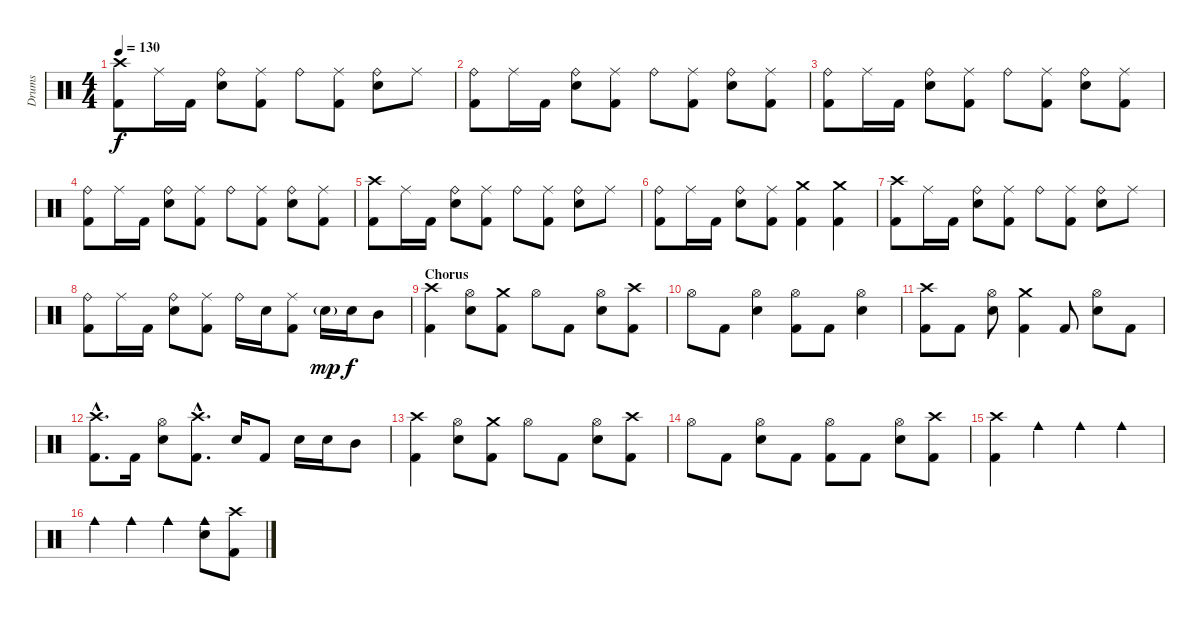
\track ("Drums" "Drums") {instrument percussion}
\staff {score}
\articulation defaults
\ts (4 4)
\tempo 130
\clef neutral
\ks c
("Crash high (hit)" "Kick (hit) 2").8{dy f} "Ride (middle)".16 "Kick (hit) 2".16 ("Ride (bell)" "Electric Snare (hit)").8 ("Ride (middle)" "Kick (hit) 2").8 "Ride (bell)".8 ("Ride (middle)" "Kick (hit) 2").8 ("Ride (bell)" "Electric Snare (hit)").8 "Ride (middle)".8 |
("Ride (bell)" "Kick (hit) 2").8 "Ride (middle)".16 "Kick (hit) 2".16 ("Ride (bell)" "Electric Snare (hit)").8 ("Ride (middle)" "Kick (hit) 2").8 "Ride (bell)".8 ("Ride (middle)" "Kick (hit) 2").8 ("Ride (bell)" "Electric Snare (hit)").8 ("Ride (middle)" "Kick (hit) 2").8 |
("Ride (bell)" "Kick (hit) 2").8 "Ride (middle)".16 "Kick (hit) 2".16 ("Ride (bell)" "Electric Snare (hit)").8 ("Ride (middle)" "Kick (hit) 2").8 "Ride (bell)".8 ("Ride (middle)" "Kick (hit) 2").8 ("Ride (bell)" "Electric Snare (hit)").8 ("Ride (middle)" "Kick (hit) 2").8 |
("Ride (bell)" "Kick (hit) 2").8 "Ride (middle)".16 "Kick (hit) 2".16 ("Ride (bell)" "Electric Snare (hit)").8 ("Ride (middle)" "Kick (hit) 2").8 "Ride (bell)".8 ("Ride (middle)" "Kick (hit) 2").8 ("Ride (bell)" "Electric Snare (hit)").8 ("Ride (middle)" "Kick (hit) 2").8 |
("Crash high (hit)" "Kick (hit) 2").8 "Ride (middle)".16 "Kick (hit) 2".16 ("Ride (bell)" "Electric Snare (hit)").8 ("Ride (middle)" "Kick (hit) 2").8 "Ride (bell)".8 ("Ride (middle)" "Kick (hit) 2").8 ("Ride (bell)" "Electric Snare (hit)").8 "Ride (middle)".8 |
("Ride (bell)" "Kick (hit) 2").8 "Ride (middle)".16 "Kick (hit) 2".16 ("Ride (bell)" "Electric Snare (hit)").8 ("Ride (middle)" "Kick (hit) 2").8 ("Crash medium (hit)" "Kick (hit) 2").4 ("Crash medium (hit)" "Kick (hit) 2").4 |
("Crash high (hit)" "Kick (hit) 2").8 "Ride (middle)".16 "Kick (hit) 2".16 ("Ride (bell)" "Electric Snare (hit)").8 ("Ride (middle)" "Kick (hit) 2").8 "Ride (bell)".8 ("Ride (middle)" "Kick (hit) 2").8 ("Ride (bell)" "Electric Snare (hit)").8 "Ride (middle)".8 |
("Ride (bell)" "Kick (hit) 2").8 "Ride (middle)".16 "Kick (hit) 2".16 ("Ride (bell)" "Electric Snare (hit)").8 ("Ride (middle)" "Kick (hit) 2").8 "Ride (bell)".16 "Electric Snare (hit)".16 ("Ride (middle)" "Kick (hit) 2").8 "Electric Snare (hit)"{g}.16{dy mp} "Electric Snare (hit)".16{dy f} "Mid Tom (hit)".8 |
\section ("" "Chorus")
("Crash high (hit)" "Kick (hit) 2").4 ("Hi-Hat (open)" "Electric Snare (hit)").8 ("Crash medium (hit)" "Kick (hit) 2").8 "Hi-Hat (open)".8 "Kick (hit) 2".8 ("Hi-Hat (open)" "Electric Snare (hit)").8 ("Crash high (hit)" "Kick (hit) 2").8 |
"Hi-Hat (open)".8 "Kick (hit) 2".8 ("Hi-Hat (open)" "Electric Snare (hit)").4 ("Hi-Hat (open)" "Kick (hit) 2").8 "Kick (hit) 2".8 ("Hi-Hat (open)" "Electric Snare (hit)").4 |
("Crash high (hit)" "Kick (hit) 2").8 "Kick (hit) 2".8 ("Hi-Hat (open)" "Electric Snare (hit)").8 ("Crash medium (hit)" "Kick (hit) 2").4 "Kick (hit) 2".8 ("Hi-Hat (open)" "Electric Snare (hit)").8 "Kick (hit) 2".8 |
("Crash high (hit)"{hac} "Kick (hit) 2"{hac}).8{d} "Kick (hit) 2".16 ("Hi-Hat (open)" "Electric Snare (hit)").8 ("Crash high (hit)"{hac} "Kick (hit) 2"{hac}).8{d} "Electric Snare (hit)".16 "Kick (hit) 2".8 "Electric Snare (hit)".16 "Electric Snare (hit)".16 "Mid Tom (hit)".8 |
("Crash high (hit)" "Kick (hit) 2").4 ("Hi-Hat (open)" "Electric Snare (hit)").8 ("Crash medium (hit)" "Kick (hit) 2").8 "Hi-Hat (open)".8 "Kick (hit) 2".8 ("Hi-Hat (open)" "Electric Snare (hit)").8 ("Crash high (hit)" "Kick (hit) 2").8 |
"Hi-Hat (open)".8 "Kick (hit) 2".8 ("Hi-Hat (open)" "Electric Snare (hit)").8 "Kick (hit) 2".8 ("Hi-Hat (open)" "Kick (hit) 2").8 "Kick (hit) 2".8 ("Hi-Hat (open)" "Electric Snare (hit)").8 ("Crash high (hit)" "Kick (hit) 2").8 |
("Crash high (hit)" "Kick (hit) 2").4 "Cowbell medium (hit)".4 "Cowbell medium (hit)".4 "Cowbell medium (hit)".4 |
"Cowbell medium (hit)".4 "Cowbell medium (hit)".4 "Cowbell medium (hit)".4 ("Cowbell medium (hit)" "Electric Snare (hit)").8 ("Crash high (hit)" "Kick (hit) 2").8
